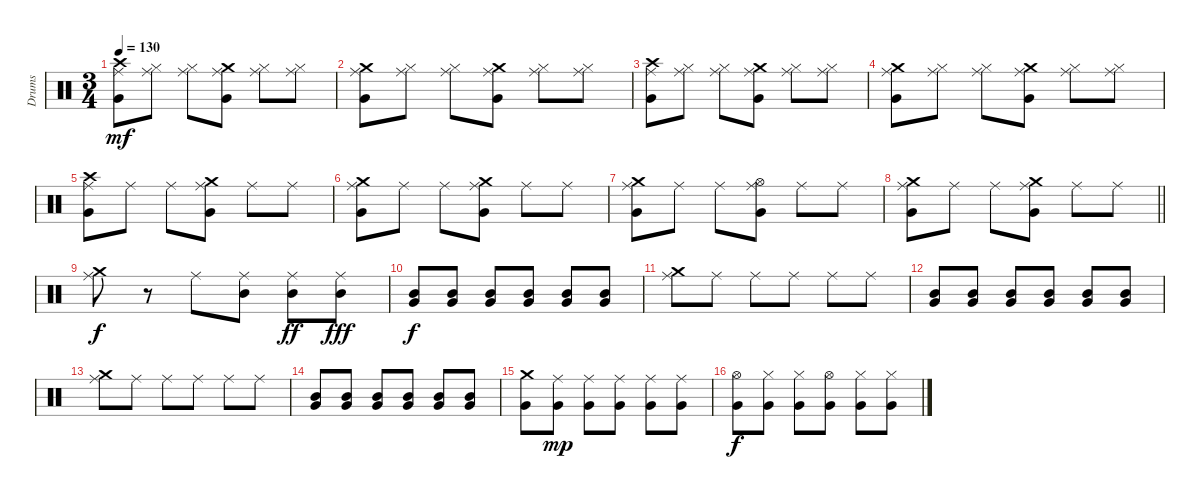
\track ("Drums" "Drums") {instrument percussion}
\staff {score}
\articulation defaults
\ts (3 4)
\tempo 130
\clef neutral
\ks c
("Crash high (hit)" "Very Low Tom (hit)" "Ride (middle)").8{dy mf} ("Hi-Hat (closed)" "Ride (middle)").8 ("Hi-Hat (closed)" "Ride (middle)").8 ("Crash medium (hit)" "Very Low Tom (hit)" "Ride (middle)").8 ("Hi-Hat (closed)" "Ride (middle)").8 ("Hi-Hat (closed)" "Ride (middle)").8 |
("Crash medium (hit)" "Very Low Tom (hit)" "Ride (middle)").8 ("Hi-Hat (closed)" "Ride (middle)").8 ("Hi-Hat (closed)" "Ride (middle)").8 ("Crash medium (hit)" "Very Low Tom (hit)" "Ride (middle)").8 ("Hi-Hat (closed)" "Ride (middle)").8 ("Hi-Hat (closed)" "Ride (middle)").8 |
("Crash high (hit)" "Very Low Tom (hit)" "Ride (middle)").8 ("Hi-Hat (closed)" "Ride (middle)").8 ("Hi-Hat (closed)" "Ride (middle)").8 ("Crash medium (hit)" "Very Low Tom (hit)" "Ride (middle)").8 ("Hi-Hat (closed)" "Ride (middle)").8 ("Hi-Hat (closed)" "Ride (middle)").8 |
("Crash medium (hit)" "Very Low Tom (hit)" "Ride (middle)").8 ("Hi-Hat (closed)" "Ride (middle)").8 ("Hi-Hat (closed)" "Ride (middle)").8 ("Crash medium (hit)" "Very Low Tom (hit)" "Ride (middle)").8 ("Hi-Hat (closed)" "Ride (middle)").8 ("Hi-Hat (closed)" "Ride (middle)").8 |
("Crash high (hit)" "Very Low Tom (hit)" "Ride (middle)").8 "Ride (middle)".8 "Ride (middle)".8 ("Crash medium (hit)" "Very Low Tom (hit)" "Ride (middle)").8 "Ride (middle)".8 "Ride (middle)".8 |
("Crash medium (hit)" "Very Low Tom (hit)" "Ride (middle)").8 "Ride (middle)".8 "Ride (middle)".8 ("Crash medium (hit)" "Very Low Tom (hit)" "Ride (middle)").8 "Ride (middle)".8 "Ride (middle)".8 |
("Crash medium (hit)" "Very Low Tom (hit)" "Ride (middle)").8 "Ride (middle)".8 "Ride (middle)".8 ("Hi-Hat (open)" "Very Low Tom (hit)" "Ride (middle)").8 "Ride (middle)".8 "Ride (middle)".8 |
\barLineRight lightlight
("Crash medium (hit)" "Very Low Tom (hit)" "Ride (middle)").8 "Ride (middle)".8 "Ride (middle)".8 ("Crash medium (hit)" "Very Low Tom (hit)" "Ride (middle)").8 "Ride (middle)".8 "Ride (middle)".8 |
\section ("" "")
("Crash medium (hit)" "Ride (middle)").8{dy f} r.8 "Ride (middle)".8 ("Ride (middle)" "Mid Tom (hit)").8 ("Ride (middle)" "Mid Tom (hit)").8{dy ff} ("Ride (middle)" "Mid Tom (hit)").8{dy fff} |
("Mid Tom (hit)" "Very Low Tom (hit)").8{dy f} ("Mid Tom (hit)" "Very Low Tom (hit)").8 ("Mid Tom (hit)" "Very Low Tom (hit)").8 ("Mid Tom (hit)" "Very Low Tom (hit)").8 ("Mid Tom (hit)" "Very Low Tom (hit)").8 ("Mid Tom (hit)" "Very Low Tom (hit)").8 |
("Crash medium (hit)" "Ride (middle)").8 "Ride (middle)".8 "Ride (middle)".8 "Ride (middle)".8 "Ride (middle)".8 "Ride (middle)".8 |
("Mid Tom (hit)" "Very Low Tom (hit)").8 ("Mid Tom (hit)" "Very Low Tom (hit)").8 ("Mid Tom (hit)" "Very Low Tom (hit)").8 ("Mid Tom (hit)" "Very Low Tom (hit)").8 ("Mid Tom (hit)" "Very Low Tom (hit)").8 ("Mid Tom (hit)" "Very Low Tom (hit)").8 |
("Crash medium (hit)" "Ride (middle)").8 "Ride (middle)".8 "Ride (middle)".8 "Ride (middle)".8 "Ride (middle)".8 "Ride (middle)".8 |
("Mid Tom (hit)" "Very Low Tom (hit)").8 ("Mid Tom (hit)" "Very Low Tom (hit)").8 ("Mid Tom (hit)" "Very Low Tom (hit)").8 ("Mid Tom (hit)" "Very Low Tom (hit)").8 ("Mid Tom (hit)" "Very Low Tom (hit)").8 ("Mid Tom (hit)" "Very Low Tom (hit)").8 |
("Crash medium (hit)" "Very Low Tom (hit)").8 ("Ride (middle)" "Very Low Tom (hit)").8{dy mp} ("Ride (middle)" "Very Low Tom (hit)").8 ("Ride (middle)" "Very Low Tom (hit)").8 ("Ride (middle)" "Very Low Tom (hit)").8 ("Ride (middle)" "Very Low Tom (hit)").8 |
("Hi-Hat (open)" "Very Low Tom (hit)").8{dy f} ("Hi-Hat (closed)" "Very Low Tom (hit)").8 ("Hi-Hat (closed)" "Very Low Tom (hit)").8 ("Hi-Hat (open)" "Very Low Tom (hit)").8 ("Hi-Hat (closed)" "Very Low Tom (hit)").8 ("Hi-Hat (closed)" "Very Low Tom (hit)").8
